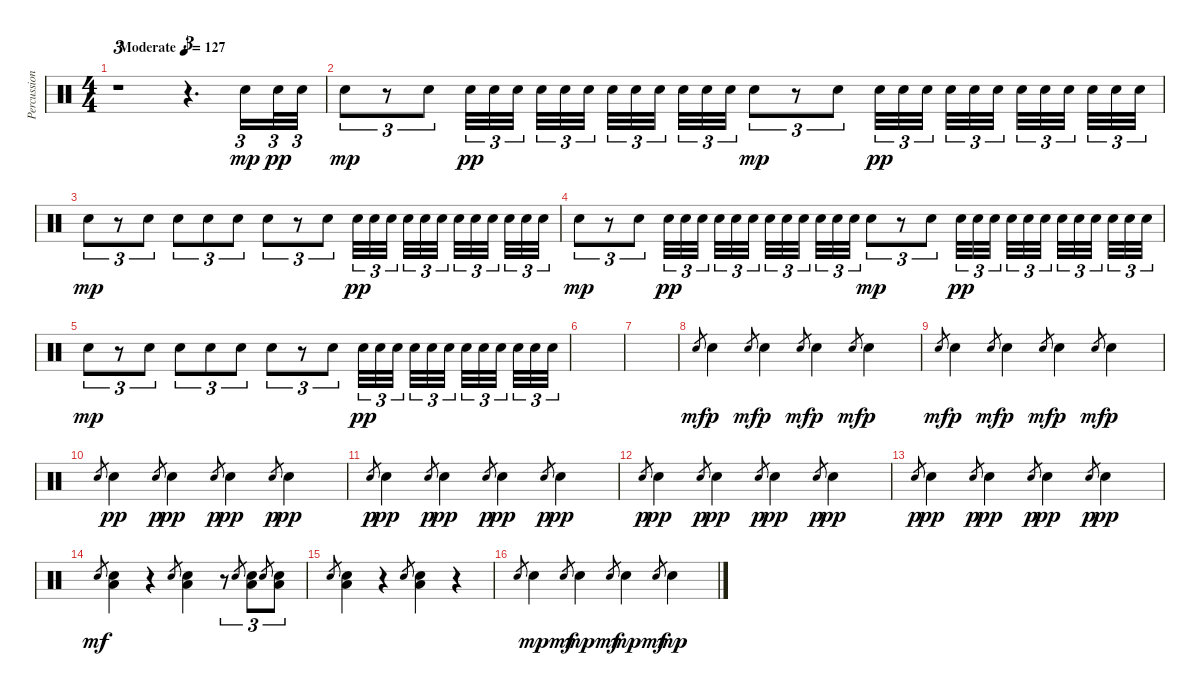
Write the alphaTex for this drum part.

\track ("Percussion" "Percussion") {instrument percussion}
\staff {score}
\articulation defaults
\ts (4 4)
\tempo (127 "Moderate")
\clef neutral
\ks c
r.1{tu (3 2) dy mp} r.4{d tu (3 2)} "Electric Snare (hit)".16{tu (3 2)} "Electric Snare (hit)".32{tu (3 2) dy pp} "Electric Snare (hit)".32{tu (3 2)} |
"Electric Snare (hit)".8{tu (3 2) dy mp} r.8{tu (3 2)} "Electric Snare (hit)".8{tu (3 2)} "Electric Snare (hit)".32{tu (3 2) dy pp} "Electric Snare (hit)".32{tu (3 2)} "Electric Snare (hit)".32{tu (3 2) beam splitsecondary} "Electric Snare (hit)".32{tu (3 2)} "Electric Snare (hit)".32{tu (3 2)} "Electric Snare (hit)".32{tu (3 2) beam splitsecondary} "Electric Snare (hit)".32{tu (3 2)} "Electric Snare (hit)".32{tu (3 2)} "Electric Snare (hit)".32{tu (3 2) beam splitsecondary} "Electric Snare (hit)".32{tu (3 2)} "Electric Snare (hit)".32{tu (3 2)} "Electric Snare (hit)".32{tu (3 2)} "Electric Snare (hit)".8{tu (3 2) dy mp} r.8{tu (3 2)} "Electric Snare (hit)".8{tu (3 2)} "Electric Snare (hit)".32{tu (3 2) dy pp} "Electric Snare (hit)".32{tu (3 2)} "Electric Snare (hit)".32{tu (3 2) beam splitsecondary} "Electric Snare (hit)".32{tu (3 2)} "Electric Snare (hit)".32{tu (3 2)} "Electric Snare (hit)".32{tu (3 2) beam splitsecondary} "Electric Snare (hit)".32{tu (3 2)} "Electric Snare (hit)".32{tu (3 2)} "Electric Snare (hit)".32{tu (3 2) beam splitsecondary} "Electric Snare (hit)".32{tu (3 2)} "Electric Snare (hit)".32{tu (3 2)} "Electric Snare (hit)".32{tu (3 2)} |
"Electric Snare (hit)".8{tu (3 2) dy mp} r.8{tu (3 2)} "Electric Snare (hit)".8{tu (3 2)} "Electric Snare (hit)".8{tu (3 2)} "Electric Snare (hit)".8{tu (3 2)} "Electric Snare (hit)".8{tu (3 2)} "Electric Snare (hit)".8{tu (3 2)} r.8{tu (3 2)} "Electric Snare (hit)".8{tu (3 2)} "Electric Snare (hit)".32{tu (3 2) dy pp} "Electric Snare (hit)".32{tu (3 2)} "Electric Snare (hit)".32{tu (3 2) beam splitsecondary} "Electric Snare (hit)".32{tu (3 2)} "Electric Snare (hit)".32{tu (3 2)} "Electric Snare (hit)".32{tu (3 2) beam splitsecondary} "Electric Snare (hit)".32{tu (3 2)} "Electric Snare (hit)".32{tu (3 2)} "Electric Snare (hit)".32{tu (3 2) beam splitsecondary} "Electric Snare (hit)".32{tu (3 2)} "Electric Snare (hit)".32{tu (3 2)} "Electric Snare (hit)".32{tu (3 2)} |
"Electric Snare (hit)".8{tu (3 2) dy mp} r.8{tu (3 2)} "Electric Snare (hit)".8{tu (3 2)} "Electric Snare (hit)".32{tu (3 2) dy pp} "Electric Snare (hit)".32{tu (3 2)} "Electric Snare (hit)".32{tu (3 2) beam splitsecondary} "Electric Snare (hit)".32{tu (3 2)} "Electric Snare (hit)".32{tu (3 2)} "Electric Snare (hit)".32{tu (3 2) beam splitsecondary} "Electric Snare (hit)".32{tu (3 2)} "Electric Snare (hit)".32{tu (3 2)} "Electric Snare (hit)".32{tu (3 2) beam splitsecondary} "Electric Snare (hit)".32{tu (3 2)} "Electric Snare (hit)".32{tu (3 2)} "Electric Snare (hit)".32{tu (3 2)} "Electric Snare (hit)".8{tu (3 2) dy mp} r.8{tu (3 2)} "Electric Snare (hit)".8{tu (3 2)} "Electric Snare (hit)".32{tu (3 2) dy pp} "Electric Snare (hit)".32{tu (3 2)} "Electric Snare (hit)".32{tu (3 2) beam splitsecondary} "Electric Snare (hit)".32{tu (3 2)} "Electric Snare (hit)".32{tu (3 2)} "Electric Snare (hit)".32{tu (3 2) beam splitsecondary} "Electric Snare (hit)".32{tu (3 2)} "Electric Snare (hit)".32{tu (3 2)} "Electric Snare (hit)".32{tu (3 2) beam splitsecondary} "Electric Snare (hit)".32{tu (3 2)} "Electric Snare (hit)".32{tu (3 2)} "Electric Snare (hit)".32{tu (3 2)} |
"Electric Snare (hit)".8{tu (3 2) dy mp} r.8{tu (3 2)} "Electric Snare (hit)".8{tu (3 2)} "Electric Snare (hit)".8{tu (3 2)} "Electric Snare (hit)".8{tu (3 2)} "Electric Snare (hit)".8{tu (3 2)} "Electric Snare (hit)".8{tu (3 2)} r.8{tu (3 2)} "Electric Snare (hit)".8{tu (3 2)} "Electric Snare (hit)".32{tu (3 2) dy pp} "Electric Snare (hit)".32{tu (3 2)} "Electric Snare (hit)".32{tu (3 2) beam splitsecondary} "Electric Snare (hit)".32{tu (3 2)} "Electric Snare (hit)".32{tu (3 2)} "Electric Snare (hit)".32{tu (3 2) beam splitsecondary} "Electric Snare (hit)".32{tu (3 2)} "Electric Snare (hit)".32{tu (3 2)} "Electric Snare (hit)".32{tu (3 2) beam splitsecondary} "Electric Snare (hit)".32{tu (3 2)} "Electric Snare (hit)".32{tu (3 2)} "Electric Snare (hit)".32{tu (3 2)} |
|
|
"Electric Snare (hit)".8{gr dy mf} "Electric Snare (hit)".4{dy p} "Electric Snare (hit)".8{gr dy mf} "Electric Snare (hit)".4{dy p} "Electric Snare (hit)".8{gr dy mf} "Electric Snare (hit)".4{dy p} "Electric Snare (hit)".8{gr dy mf} "Electric Snare (hit)".4{dy p} |
"Electric Snare (hit)".8{gr dy mf} "Electric Snare (hit)".4{dy p} "Electric Snare (hit)".8{gr dy mf} "Electric Snare (hit)".4{dy p} "Electric Snare (hit)".8{gr dy mf} "Electric Snare (hit)".4{dy p} "Electric Snare (hit)".8{gr dy mf} "Electric Snare (hit)".4{dy p} |
"Electric Snare (hit)".8{gr} "Electric Snare (hit)".4{dy pp} "Electric Snare (hit)".8{gr dy p} "Electric Snare (hit)".4{dy pp} "Electric Snare (hit)".8{gr dy p} "Electric Snare (hit)".4{dy pp} "Electric Snare (hit)".8{gr dy p} "Electric Snare (hit)".4{dy pp} |
"Electric Snare (hit)".8{gr dy p} "Electric Snare (hit)".4{dy pp} "Electric Snare (hit)".8{gr dy p} "Electric Snare (hit)".4{dy pp} "Electric Snare (hit)".8{gr dy p} "Electric Snare (hit)".4{dy pp} "Electric Snare (hit)".8{gr dy p} "Electric Snare (hit)".4{dy pp} |
"Electric Snare (hit)".8{gr dy p} "Electric Snare (hit)".4{dy pp} "Electric Snare (hit)".8{gr dy p} "Electric Snare (hit)".4{dy pp} "Electric Snare (hit)".8{gr dy p} "Electric Snare (hit)".4{dy pp} "Electric Snare (hit)".8{gr dy p} "Electric Snare (hit)".4{dy pp} |
"Electric Snare (hit)".8{gr dy p} "Electric Snare (hit)".4{dy pp} "Electric Snare (hit)".8{gr dy p} "Electric Snare (hit)".4{dy pp} "Electric Snare (hit)".8{gr dy p} "Electric Snare (hit)".4{dy pp} "Electric Snare (hit)".8{gr dy p} "Electric Snare (hit)".4{dy pp} |
"Electric Snare (hit)".8{gr dy mf} ("Electric Snare (hit)" "Low Floor Tom (hit)").4 r.4 "Electric Snare (hit)".8{gr} ("Electric Snare (hit)" "Low Floor Tom (hit)").4 r.8{tu (3 2)} "Electric Snare (hit)".8{gr} ("Electric Snare (hit)" "Low Floor Tom (hit)").8{tu (3 2)} "Electric Snare (hit)".8{gr} ("Electric Snare (hit)" "Low Floor Tom (hit)").8{tu (3 2)} |
"Electric Snare (hit)".8{gr} ("Electric Snare (hit)" "Low Floor Tom (hit)").4 r.4 "Electric Snare (hit)".8{gr} ("Electric Snare (hit)" "Low Floor Tom (hit)").4 r.4 |
"Electric Snare (hit)".8{gr} "Electric Snare (hit)".4{dy mp} "Electric Snare (hit)".8{gr dy mf} "Electric Snare (hit)".4{dy mp} "Electric Snare (hit)".8{gr dy mf} "Electric Snare (hit)".4{dy mp} "Electric Snare (hit)".8{gr dy mf} "Electric Snare (hit)".4{dy mp}
